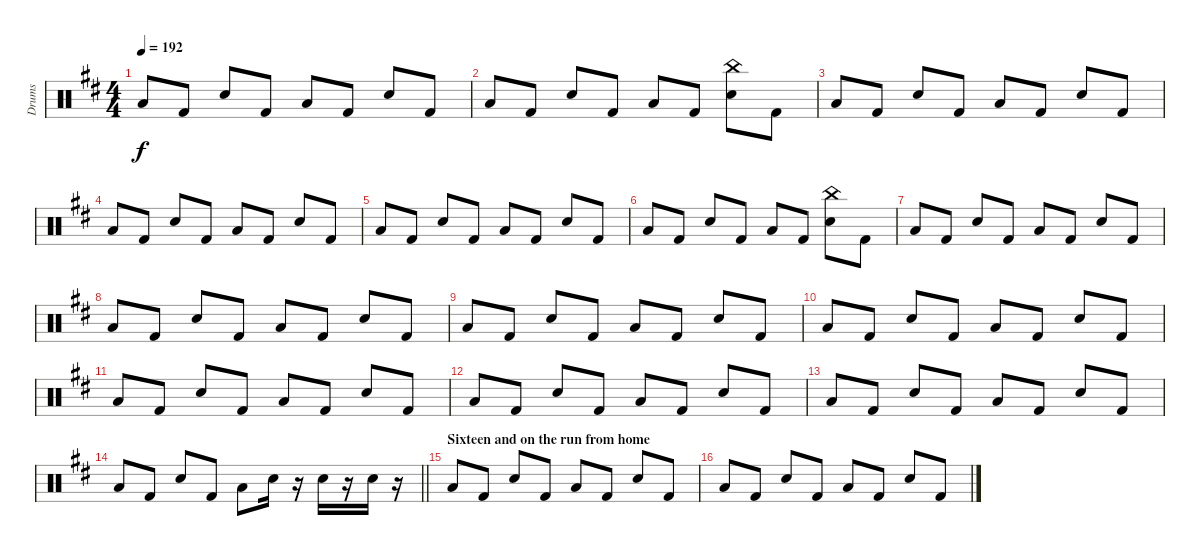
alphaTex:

\track ("Drums" "Drums") {instrument percussion}
\staff {score}
\articulation defaults
\ts (4 4)
\tempo 192
\clef neutral
\ks d "Low Tom (hit)".8{dy f} "Kick (hit) 2".8 "Snare (hit) 2".8 "Kick (hit) 2".8 "Low Tom (hit)".8 "Kick (hit) 2".8 "Snare (hit) 2".8 "Kick (hit) 2".8
|
"Low Tom (hit)".8 "Kick (hit) 2".8 "Snare (hit) 2".8 "Kick (hit) 2".8 "Low Tom (hit)".8 "Kick (hit) 2".8 ("China (hit)" "Snare (hit) 2").8 "Kick (hit) 2".8 |
"Low Tom (hit)".8 "Kick (hit) 2".8 "Snare (hit) 2".8 "Kick (hit) 2".8 "Low Tom (hit)".8 "Kick (hit) 2".8 "Snare (hit) 2".8 "Kick (hit) 2".8 |
"Low Tom (hit)".8 "Kick (hit) 2".8 "Snare (hit) 2".8 "Kick (hit) 2".8 "Low Tom (hit)".8 "Kick (hit) 2".8 "Snare (hit) 2".8 "Kick (hit) 2".8 |
"Low Tom (hit)".8 "Kick (hit) 2".8 "Snare (hit) 2".8 "Kick (hit) 2".8 "Low Tom (hit)".8 "Kick (hit) 2".8 "Snare (hit) 2".8 "Kick (hit) 2".8 |
"Low Tom (hit)".8 "Kick (hit) 2".8 "Snare (hit) 2".8 "Kick (hit) 2".8 "Low Tom (hit)".8 "Kick (hit) 2".8 ("China (hit)" "Snare (hit) 2").8 "Kick (hit) 2".8 |
"Low Tom (hit)".8 "Kick (hit) 2".8 "Snare (hit) 2".8 "Kick (hit) 2".8 "Low Tom (hit)".8 "Kick (hit) 2".8 "Snare (hit) 2".8 "Kick (hit) 2".8 |
"Low Tom (hit)".8 "Kick (hit) 2".8 "Snare (hit) 2".8 "Kick (hit) 2".8 "Low Tom (hit)".8 "Kick (hit) 2".8 "Snare (hit) 2".8 "Kick (hit) 2".8 |
"Low Tom (hit)".8 "Kick (hit) 2".8 "Snare (hit) 2".8 "Kick (hit) 2".8 "Low Tom (hit)".8 "Kick (hit) 2".8 "Snare (hit) 2".8 "Kick (hit) 2".8 |
"Low Tom (hit)".8 "Kick (hit) 2".8 "Snare (hit) 2".8 "Kick (hit) 2".8 "Low Tom (hit)".8 "Kick (hit) 2".8 "Snare (hit) 2".8 "Kick (hit) 2".8 |
"Low Tom (hit)".8 "Kick (hit) 2".8 "Snare (hit) 2".8 "Kick (hit) 2".8 "Low Tom (hit)".8 "Kick (hit) 2".8 "Snare (hit) 2".8 "Kick (hit) 2".8 |
"Low Tom (hit)".8 "Kick (hit) 2".8 "Snare (hit) 2".8 "Kick (hit) 2".8 "Low Tom (hit)".8 "Kick (hit) 2".8 "Snare (hit) 2".8 "Kick (hit) 2".8 |
"Low Tom (hit)".8 "Kick (hit) 2".8 "Snare (hit) 2".8 "Kick (hit) 2".8 "Low Tom (hit)".8 "Kick (hit) 2".8 "Snare (hit) 2".8 "Kick (hit) 2".8 |
\barLineRight lightlight "Low Tom (hit)".8 "Kick (hit) 2".8 "Snare (hit) 2".8 "Kick (hit) 2".8 "Low Tom (hit)".8 "Snare (hit) 2".16
r.16 "Snare (hit) 2".16 r.16 "Snare (hit) 2".16 r.16 |
\section ("" "Sixteen and on the run from home")
"Low Tom (hit)".8 "Kick (hit) 2".8 "Snare (hit) 2".8 "Kick (hit) 2".8 "Low Tom (hit)".8 "Kick (hit) 2".8 "Snare (hit) 2".8 "Kick (hit) 2".8 |
"Low Tom (hit)".8 "Kick (hit) 2".8 "Snare (hit) 2".8 "Kick (hit) 2".8 "Low Tom (hit)".8 "Kick (hit) 2".8 "Snare (hit) 2".8 "Kick (hit) 2".8
